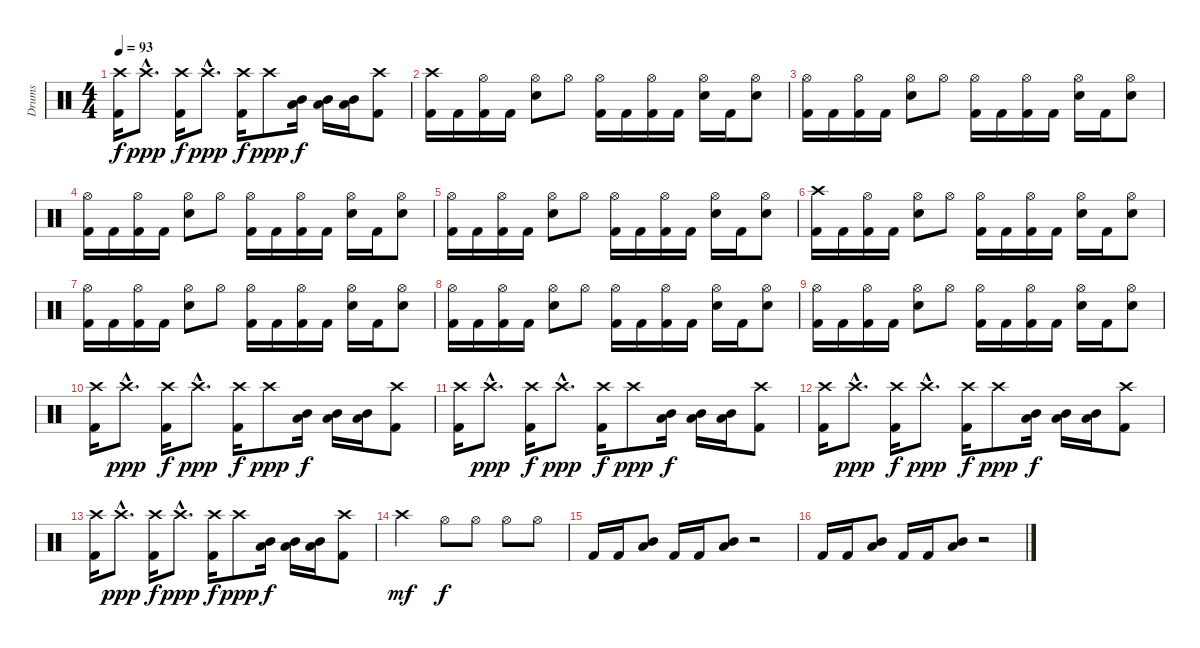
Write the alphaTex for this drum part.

\track ("Drums" "Drums") {instrument percussion}
\staff {score}
\articulation defaults
\ts (4 4)
\tempo 93
\clef neutral
\ks c
("Crash high (hit)" "Kick (hit) 2").16{dy f} "Crash high (hit)"{hac}.8{d dy ppp} ("Crash high (hit)" "Kick (hit) 2").16{dy f} "Crash high (hit)"{hac}.8{d dy ppp} ("Crash high (hit)" "Kick (hit) 2").16{dy f} "Crash high (hit)".8{dy ppp} ("Mid Tom (hit)" "Low Tom (hit)").16{dy f} ("Mid Tom (hit)" "Low Tom (hit)").16 ("Mid Tom (hit)" "Low Tom (hit)").16 ("Crash high (hit)" "Kick (hit) 2").8 |
("Crash high (hit)" "Kick (hit) 2").16 "Kick (hit) 2".16 ("Hi-Hat (open)" "Kick (hit) 2").16 "Kick (hit) 2".16 ("Hi-Hat (open)" "Electric Snare (hit)").8 "Hi-Hat (open)".8 ("Hi-Hat (open)" "Kick (hit) 2").16 "Kick (hit) 2".16 ("Hi-Hat (open)" "Kick (hit) 2").16 "Kick (hit) 2".16 ("Hi-Hat (open)" "Electric Snare (hit)").16 "Kick (hit) 2".16 ("Hi-Hat (open)" "Electric Snare (hit)").8 |
("Hi-Hat (open)" "Kick (hit) 2").16 "Kick (hit) 2".16 ("Hi-Hat (open)" "Kick (hit) 2").16 "Kick (hit) 2".16 ("Hi-Hat (open)" "Electric Snare (hit)").8 "Hi-Hat (open)".8 ("Hi-Hat (open)" "Kick (hit) 2").16 "Kick (hit) 2".16 ("Hi-Hat (open)" "Kick (hit) 2").16 "Kick (hit) 2".16 ("Hi-Hat (open)" "Electric Snare (hit)").16 "Kick (hit) 2".16 ("Hi-Hat (open)" "Electric Snare (hit)").8 |
("Hi-Hat (open)" "Kick (hit) 2").16 "Kick (hit) 2".16 ("Hi-Hat (open)" "Kick (hit) 2").16 "Kick (hit) 2".16 ("Hi-Hat (open)" "Electric Snare (hit)").8 "Hi-Hat (open)".8 ("Hi-Hat (open)" "Kick (hit) 2").16 "Kick (hit) 2".16 ("Hi-Hat (open)" "Kick (hit) 2").16 "Kick (hit) 2".16 ("Hi-Hat (open)" "Electric Snare (hit)").16 "Kick (hit) 2".16 ("Hi-Hat (open)" "Electric Snare (hit)").8 |
("Hi-Hat (open)" "Kick (hit) 2").16 "Kick (hit) 2".16 ("Hi-Hat (open)" "Kick (hit) 2").16 "Kick (hit) 2".16 ("Hi-Hat (open)" "Electric Snare (hit)").8 "Hi-Hat (open)".8 ("Hi-Hat (open)" "Kick (hit) 2").16 "Kick (hit) 2".16 ("Hi-Hat (open)" "Kick (hit) 2").16 "Kick (hit) 2".16 ("Hi-Hat (open)" "Electric Snare (hit)").16 "Kick (hit) 2".16 ("Hi-Hat (open)" "Electric Snare (hit)").8 |
("Crash high (hit)" "Kick (hit) 2").16 "Kick (hit) 2".16 ("Hi-Hat (open)" "Kick (hit) 2").16 "Kick (hit) 2".16 ("Hi-Hat (open)" "Electric Snare (hit)").8 "Hi-Hat (open)".8 ("Hi-Hat (open)" "Kick (hit) 2").16 "Kick (hit) 2".16 ("Hi-Hat (open)" "Kick (hit) 2").16 "Kick (hit) 2".16 ("Hi-Hat (open)" "Electric Snare (hit)").16 "Kick (hit) 2".16 ("Hi-Hat (open)" "Electric Snare (hit)").8 |
("Hi-Hat (open)" "Kick (hit) 2").16 "Kick (hit) 2".16 ("Hi-Hat (open)" "Kick (hit) 2").16 "Kick (hit) 2".16 ("Hi-Hat (open)" "Electric Snare (hit)").8 "Hi-Hat (open)".8 ("Hi-Hat (open)" "Kick (hit) 2").16 "Kick (hit) 2".16 ("Hi-Hat (open)" "Kick (hit) 2").16 "Kick (hit) 2".16 ("Hi-Hat (open)" "Electric Snare (hit)").16 "Kick (hit) 2".16 ("Hi-Hat (open)" "Electric Snare (hit)").8 |
("Hi-Hat (open)" "Kick (hit) 2").16 "Kick (hit) 2".16 ("Hi-Hat (open)" "Kick (hit) 2").16 "Kick (hit) 2".16 ("Hi-Hat (open)" "Electric Snare (hit)").8 "Hi-Hat (open)".8 ("Hi-Hat (open)" "Kick (hit) 2").16 "Kick (hit) 2".16 ("Hi-Hat (open)" "Kick (hit) 2").16 "Kick (hit) 2".16 ("Hi-Hat (open)" "Electric Snare (hit)").16 "Kick (hit) 2".16 ("Hi-Hat (open)" "Electric Snare (hit)").8 |
("Hi-Hat (open)" "Kick (hit) 2").16 "Kick (hit) 2".16 ("Hi-Hat (open)" "Kick (hit) 2").16 "Kick (hit) 2".16 ("Hi-Hat (open)" "Electric Snare (hit)").8 "Hi-Hat (open)".8 ("Hi-Hat (open)" "Kick (hit) 2").16 "Kick (hit) 2".16 ("Hi-Hat (open)" "Kick (hit) 2").16 "Kick (hit) 2".16 ("Hi-Hat (open)" "Electric Snare (hit)").16 "Kick (hit) 2".16 ("Hi-Hat (open)" "Electric Snare (hit)").8 |
("Crash high (hit)" "Kick (hit) 2").16 "Crash high (hit)"{hac}.8{d dy ppp} ("Crash high (hit)" "Kick (hit) 2").16{dy f} "Crash high (hit)"{hac}.8{d dy ppp} ("Crash high (hit)" "Kick (hit) 2").16{dy f} "Crash high (hit)".8{dy ppp} ("Mid Tom (hit)" "Low Tom (hit)").16{dy f} ("Mid Tom (hit)" "Low Tom (hit)").16 ("Mid Tom (hit)" "Low Tom (hit)").16 ("Crash high (hit)" "Kick (hit) 2").8 |
("Crash high (hit)" "Kick (hit) 2").16 "Crash high (hit)"{hac}.8{d dy ppp} ("Crash high (hit)" "Kick (hit) 2").16{dy f} "Crash high (hit)"{hac}.8{d dy ppp} ("Crash high (hit)" "Kick (hit) 2").16{dy f} "Crash high (hit)".8{dy ppp} ("Mid Tom (hit)" "Low Tom (hit)").16{dy f} ("Mid Tom (hit)" "Low Tom (hit)").16 ("Mid Tom (hit)" "Low Tom (hit)").16 ("Crash high (hit)" "Kick (hit) 2").8 |
("Crash high (hit)" "Kick (hit) 2").16 "Crash high (hit)"{hac}.8{d dy ppp} ("Crash high (hit)" "Kick (hit) 2").16{dy f} "Crash high (hit)"{hac}.8{d dy ppp} ("Crash high (hit)" "Kick (hit) 2").16{dy f} "Crash high (hit)".8{dy ppp} ("Mid Tom (hit)" "Low Tom (hit)").16{dy f} ("Mid Tom (hit)" "Low Tom (hit)").16 ("Mid Tom (hit)" "Low Tom (hit)").16 ("Crash high (hit)" "Kick (hit) 2").8 |
("Crash high (hit)" "Kick (hit) 2").16 "Crash high (hit)"{hac}.8{d dy ppp} ("Crash high (hit)" "Kick (hit) 2").16{dy f} "Crash high (hit)"{hac}.8{d dy ppp} ("Crash high (hit)" "Kick (hit) 2").16{dy f} "Crash high (hit)".8{dy ppp} ("Mid Tom (hit)" "Low Tom (hit)").16{dy f} ("Mid Tom (hit)" "Low Tom (hit)").16 ("Mid Tom (hit)" "Low Tom (hit)").16 ("Crash high (hit)" "Kick (hit) 2").8 |
"Crash high (hit)"{tr (57 64)}.2{dy mf} "Hi-Hat (open)".8{dy f} "Hi-Hat (open)".8 "Hi-Hat (open)".8 "Hi-Hat (open)".8 |
"Kick (hit) 2".16 "Kick (hit) 2".16 ("Mid Tom (hit)" "Low Tom (hit)").8 "Kick (hit) 2".16 "Kick (hit) 2".16 ("Mid Tom (hit)" "Low Tom (hit)").8 r.2 |
"Kick (hit) 2".16 "Kick (hit) 2".16 ("Mid Tom (hit)" "Low Tom (hit)").8 "Kick (hit) 2".16 "Kick (hit) 2".16 ("Mid Tom (hit)" "Low Tom (hit)").8 r.2
